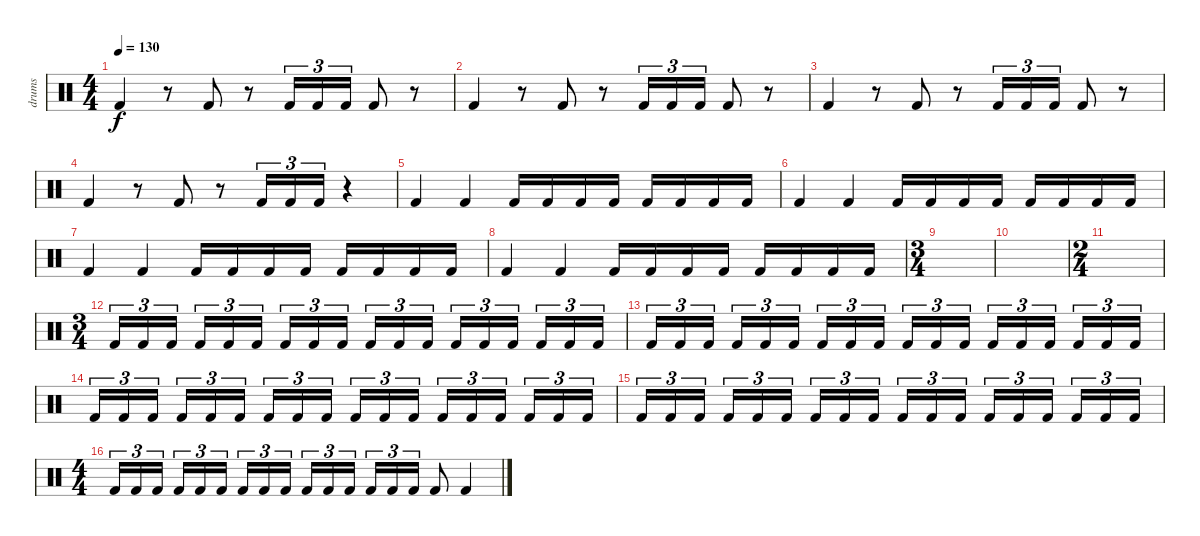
\track ("drums" "drums") {instrument percussion}
\staff {score}
\articulation defaults
\ts (4 4)
\tempo 130
\clef neutral
\ks c "Kick (hit) 2".4{dy f}
r.8 "Kick (hit) 2".8 r.8 "Kick (hit) 2".16{tu (3 2)} "Kick (hit) 2".16{tu (3 2)} "Kick (hit) 2".16{tu (3 2)} "Kick (hit) 2".8 r.8 |
"Kick (hit) 2".4 r.8 "Kick (hit) 2".8 r.8 "Kick (hit) 2".16{tu (3 2)} "Kick (hit) 2".16{tu (3 2)} "Kick (hit) 2".16{tu (3 2)} "Kick (hit) 2".8 r.8 |
"Kick (hit) 2".4 r.8 "Kick (hit) 2".8 r.8 "Kick (hit) 2".16{tu (3 2)} "Kick (hit) 2".16{tu (3 2)} "Kick (hit) 2".16{tu (3 2)} "Kick (hit) 2".8 r.8 |
"Kick (hit) 2".4 r.8 "Kick (hit) 2".8 r.8 "Kick (hit) 2".16{tu (3 2)} "Kick (hit) 2".16{tu (3 2)} "Kick (hit) 2".16{tu (3 2)} r.4 |
"Kick (hit) 2".4 "Kick (hit) 2".4 "Kick (hit) 2".16 "Kick (hit) 2".16 "Kick (hit) 2".16 "Kick (hit) 2".16 "Kick (hit) 2".16 "Kick (hit) 2".16 "Kick (hit) 2".16 "Kick (hit) 2".16 |
"Kick (hit) 2".4 "Kick (hit) 2".4 "Kick (hit) 2".16 "Kick (hit) 2".16 "Kick (hit) 2".16 "Kick (hit) 2".16 "Kick (hit) 2".16 "Kick (hit) 2".16 "Kick (hit) 2".16 "Kick (hit) 2".16 |
"Kick (hit) 2".4 "Kick (hit) 2".4 "Kick (hit) 2".16 "Kick (hit) 2".16 "Kick (hit) 2".16 "Kick (hit) 2".16 "Kick (hit) 2".16 "Kick (hit) 2".16 "Kick (hit) 2".16 "Kick (hit) 2".16 |
"Kick (hit) 2".4 "Kick (hit) 2".4 "Kick (hit) 2".16 "Kick (hit) 2".16 "Kick (hit) 2".16 "Kick (hit) 2".16 "Kick (hit) 2".16 "Kick (hit) 2".16 "Kick (hit) 2".16 "Kick (hit) 2".16 |
\ts (3 4)
|
|
\ts (2 4)
|
\ts (3 4)
"Kick (hit) 2".16{tu (3 2)} "Kick (hit) 2".16{tu (3 2)} "Kick (hit) 2".16{tu (3 2)} "Kick (hit) 2".16{tu (3 2)} "Kick (hit) 2".16{tu (3 2)} "Kick (hit) 2".16{tu (3 2)} "Kick (hit) 2".16{tu (3 2)} "Kick (hit) 2".16{tu (3 2)} "Kick (hit) 2".16{tu (3 2)} "Kick (hit) 2".16{tu (3 2)} "Kick (hit) 2".16{tu (3 2)} "Kick (hit) 2".16{tu (3 2)} "Kick (hit) 2".16{tu (3 2)} "Kick (hit) 2".16{tu (3 2)} "Kick (hit) 2".16{tu (3 2)} "Kick (hit) 2".16{tu (3 2)} "Kick (hit) 2".16{tu (3 2)} "Kick (hit) 2".16{tu (3 2)} |
"Kick (hit) 2".16{tu (3 2)} "Kick (hit) 2".16{tu (3 2)} "Kick (hit) 2".16{tu (3 2)} "Kick (hit) 2".16{tu (3 2)} "Kick (hit) 2".16{tu (3 2)} "Kick (hit) 2".16{tu (3 2)} "Kick (hit) 2".16{tu (3 2)} "Kick (hit) 2".16{tu (3 2)} "Kick (hit) 2".16{tu (3 2)} "Kick (hit) 2".16{tu (3 2)} "Kick (hit) 2".16{tu (3 2)} "Kick (hit) 2".16{tu (3 2)} "Kick (hit) 2".16{tu (3 2)} "Kick (hit) 2".16{tu (3 2)} "Kick (hit) 2".16{tu (3 2)} "Kick (hit) 2".16{tu (3 2)} "Kick (hit) 2".16{tu (3 2)} "Kick (hit) 2".16{tu (3 2)} |
"Kick (hit) 2".16{tu (3 2)} "Kick (hit) 2".16{tu (3 2)} "Kick (hit) 2".16{tu (3 2)} "Kick (hit) 2".16{tu (3 2)} "Kick (hit) 2".16{tu (3 2)} "Kick (hit) 2".16{tu (3 2)} "Kick (hit) 2".16{tu (3 2)} "Kick (hit) 2".16{tu (3 2)} "Kick (hit) 2".16{tu (3 2)} "Kick (hit) 2".16{tu (3 2)} "Kick (hit) 2".16{tu (3 2)} "Kick (hit) 2".16{tu (3 2)} "Kick (hit) 2".16{tu (3 2)} "Kick (hit) 2".16{tu (3 2)} "Kick (hit) 2".16{tu (3 2)} "Kick (hit) 2".16{tu (3 2)} "Kick (hit) 2".16{tu (3 2)} "Kick (hit) 2".16{tu (3 2)} |
"Kick (hit) 2".16{tu (3 2)} "Kick (hit) 2".16{tu (3 2)} "Kick (hit) 2".16{tu (3 2)} "Kick (hit) 2".16{tu (3 2)} "Kick (hit) 2".16{tu (3 2)} "Kick (hit) 2".16{tu (3 2)} "Kick (hit) 2".16{tu (3 2)} "Kick (hit) 2".16{tu (3 2)} "Kick (hit) 2".16{tu (3 2)} "Kick (hit) 2".16{tu (3 2)} "Kick (hit) 2".16{tu (3 2)} "Kick (hit) 2".16{tu (3 2)} "Kick (hit) 2".16{tu (3 2)} "Kick (hit) 2".16{tu (3 2)} "Kick (hit) 2".16{tu (3 2)} "Kick (hit) 2".16{tu (3 2)} "Kick (hit) 2".16{tu (3 2)} "Kick (hit) 2".16{tu (3 2)} |
\ts (4 4)
"Kick (hit) 2".16{tu (3 2)} "Kick (hit) 2".16{tu (3 2)} "Kick (hit) 2".16{tu (3 2)} "Kick (hit) 2".16{tu (3 2)} "Kick (hit) 2".16{tu (3 2)} "Kick (hit) 2".16{tu (3 2)} "Kick (hit) 2".16{tu (3 2)} "Kick (hit) 2".16{tu (3 2)} "Kick (hit) 2".16{tu (3 2)} "Kick (hit) 2".16{tu (3 2)} "Kick (hit) 2".16{tu (3 2)} "Kick (hit) 2".16{tu (3 2)} "Kick (hit) 2".16{tu (3 2)} "Kick (hit) 2".16{tu (3 2)} "Kick (hit) 2".16{tu (3 2)} "Kick (hit) 2".8 "Kick (hit) 2".4
